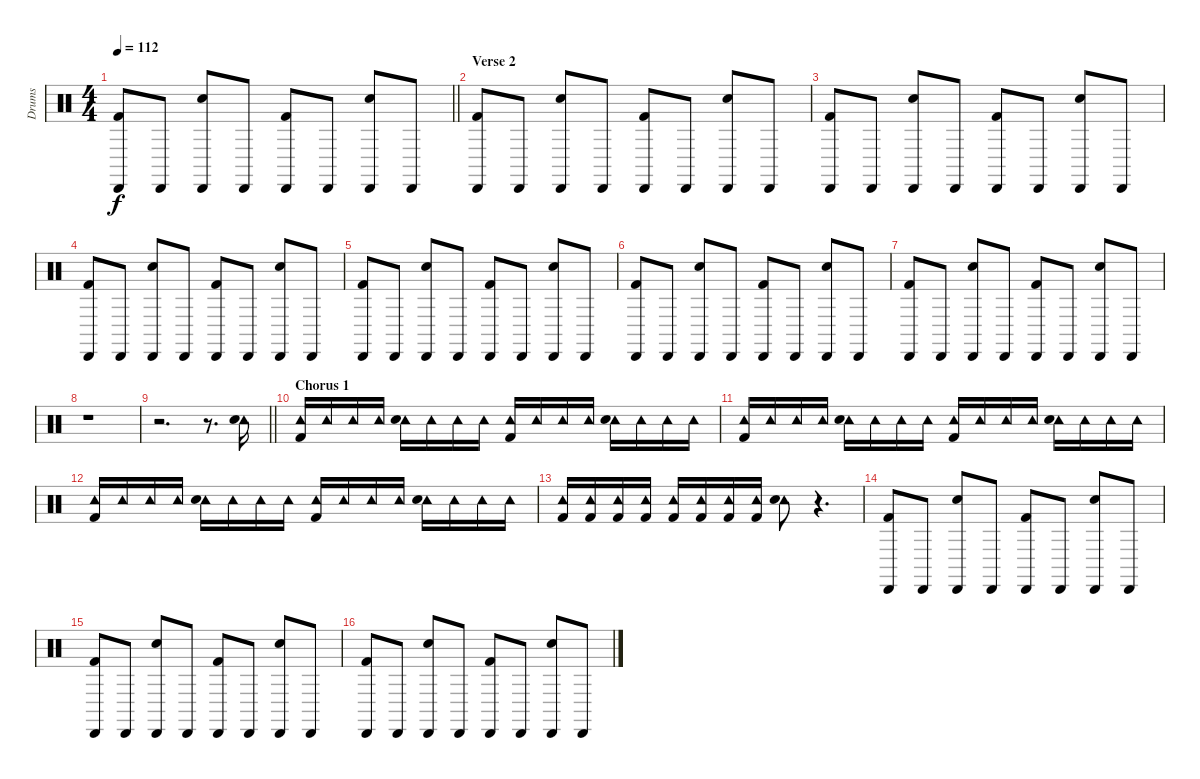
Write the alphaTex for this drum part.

\track ("Drums" "Drums") {instrument percussion}
\staff {score}
\articulation defaults
\ts (4 4)
\tempo 112
\clef neutral
\barLineRight lightlight
\ks c
("Kick (hit) 2" "Cabasa (hit)").8{dy f} "Cabasa (hit)".8 ("Snare (hit) 2" "Cabasa (hit)").8 "Cabasa (hit)".8 ("Kick (hit) 2" "Cabasa (hit)").8 "Cabasa (hit)".8 ("Snare (hit) 2" "Cabasa (hit)").8 "Cabasa (hit)".8 |
\section ("" "Verse 2")
("Kick (hit) 2" "Cabasa (hit)").8 "Cabasa (hit)".8 ("Snare (hit) 2" "Cabasa (hit)").8 "Cabasa (hit)".8 ("Kick (hit) 2" "Cabasa (hit)").8 "Cabasa (hit)".8 ("Snare (hit) 2" "Cabasa (hit)").8 "Cabasa (hit)".8 |
("Kick (hit) 2" "Cabasa (hit)").8 "Cabasa (hit)".8 ("Snare (hit) 2" "Cabasa (hit)").8 "Cabasa (hit)".8 ("Kick (hit) 2" "Cabasa (hit)").8 "Cabasa (hit)".8 ("Snare (hit) 2" "Cabasa (hit)").8 "Cabasa (hit)".8 |
("Kick (hit) 2" "Cabasa (hit)").8 "Cabasa (hit)".8 ("Snare (hit) 2" "Cabasa (hit)").8 "Cabasa (hit)".8 ("Kick (hit) 2" "Cabasa (hit)").8 "Cabasa (hit)".8 ("Snare (hit) 2" "Cabasa (hit)").8 "Cabasa (hit)".8 |
("Kick (hit) 2" "Cabasa (hit)").8 "Cabasa (hit)".8 ("Snare (hit) 2" "Cabasa (hit)").8 "Cabasa (hit)".8 ("Kick (hit) 2" "Cabasa (hit)").8 "Cabasa (hit)".8 ("Snare (hit) 2" "Cabasa (hit)").8 "Cabasa (hit)".8 |
("Kick (hit) 2" "Cabasa (hit)").8 "Cabasa (hit)".8 ("Snare (hit) 2" "Cabasa (hit)").8 "Cabasa (hit)".8 ("Kick (hit) 2" "Cabasa (hit)").8 "Cabasa (hit)".8 ("Snare (hit) 2" "Cabasa (hit)").8 "Cabasa (hit)".8 |
("Kick (hit) 2" "Cabasa (hit)").8 "Cabasa (hit)".8 ("Snare (hit) 2" "Cabasa (hit)").8 "Cabasa (hit)".8 ("Kick (hit) 2" "Cabasa (hit)").8 "Cabasa (hit)".8 ("Snare (hit) 2" "Cabasa (hit)").8 "Cabasa (hit)".8 |
r.1 |
\barLineRight lightlight
r.2{d} r.8{d} ("Tambourine (hit)" "Snare (hit) 2").16 |
\section ("" "Chorus 1")
("Tambourine (hit)" "Kick (hit) 2").16 "Tambourine (hit)".16 "Tambourine (hit)".16 "Tambourine (hit)".16 ("Tambourine (hit)" "Snare (hit) 2").16 "Tambourine (hit)".16 "Tambourine (hit)".16 "Tambourine (hit)".16 ("Tambourine (hit)" "Kick (hit) 2").16 "Tambourine (hit)".16 "Tambourine (hit)".16 "Tambourine (hit)".16 ("Tambourine (hit)" "Snare (hit) 2").16 "Tambourine (hit)".16 "Tambourine (hit)".16 "Tambourine (hit)".16 |
("Tambourine (hit)" "Kick (hit) 2").16 "Tambourine (hit)".16 "Tambourine (hit)".16 "Tambourine (hit)".16 ("Tambourine (hit)" "Snare (hit) 2").16 "Tambourine (hit)".16 "Tambourine (hit)".16 "Tambourine (hit)".16 ("Tambourine (hit)" "Kick (hit) 2").16 "Tambourine (hit)".16 "Tambourine (hit)".16 "Tambourine (hit)".16 ("Tambourine (hit)" "Snare (hit) 2").16 "Tambourine (hit)".16 "Tambourine (hit)".16 "Tambourine (hit)".16 |
("Tambourine (hit)" "Kick (hit) 2").16 "Tambourine (hit)".16 "Tambourine (hit)".16 "Tambourine (hit)".16 ("Tambourine (hit)" "Snare (hit) 2").16 "Tambourine (hit)".16 "Tambourine (hit)".16 "Tambourine (hit)".16 ("Tambourine (hit)" "Kick (hit) 2").16 "Tambourine (hit)".16 "Tambourine (hit)".16 "Tambourine (hit)".16 ("Tambourine (hit)" "Snare (hit) 2").16 "Tambourine (hit)".16 "Tambourine (hit)".16 "Tambourine (hit)".16 |
("Tambourine (hit)" "Kick (hit) 2").16 ("Tambourine (hit)" "Kick (hit) 2").16 ("Tambourine (hit)" "Kick (hit) 2").16 ("Tambourine (hit)" "Kick (hit) 2").16 ("Tambourine (hit)" "Kick (hit) 2").16 ("Tambourine (hit)" "Kick (hit) 2").16 ("Tambourine (hit)" "Kick (hit) 2").16 ("Tambourine (hit)" "Kick (hit) 2").16 ("Tambourine (hit)" "Snare (hit) 2").8 r.4{d} |
("Kick (hit) 2" "Cabasa (hit)").8 "Cabasa (hit)".8 ("Snare (hit) 2" "Cabasa (hit)").8 "Cabasa (hit)".8 ("Kick (hit) 2" "Cabasa (hit)").8 "Cabasa (hit)".8 ("Snare (hit) 2" "Cabasa (hit)").8 "Cabasa (hit)".8 |
("Kick (hit) 2" "Cabasa (hit)").8 "Cabasa (hit)".8 ("Snare (hit) 2" "Cabasa (hit)").8 "Cabasa (hit)".8 ("Kick (hit) 2" "Cabasa (hit)").8 "Cabasa (hit)".8 ("Snare (hit) 2" "Cabasa (hit)").8 "Cabasa (hit)".8 |
("Kick (hit) 2" "Cabasa (hit)").8 "Cabasa (hit)".8 ("Snare (hit) 2" "Cabasa (hit)").8 "Cabasa (hit)".8 ("Kick (hit) 2" "Cabasa (hit)").8 "Cabasa (hit)".8 ("Snare (hit) 2" "Cabasa (hit)").8 "Cabasa (hit)".8
